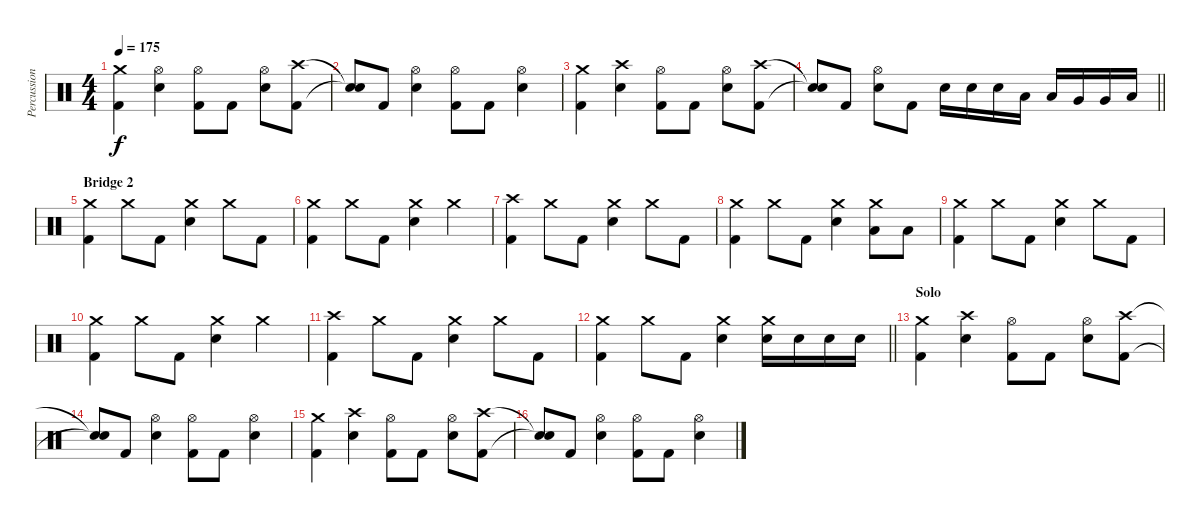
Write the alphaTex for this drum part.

\track ("Percussions" "Percussion") {instrument percussion}
\staff {score}
\articulation defaults
\ts (4 4)
\tempo 175
\clef neutral
\ks c
("Crash medium (hit)" "Kick (hit) 2").4{dy f} ("Hi-Hat (open)" "Electric Snare (hit)").4 ("Hi-Hat (open)" "Kick (hit) 2").8 "Kick (hit) 2".8 ("Hi-Hat (open)" "Electric Snare (hit)").8 ("Crash high (hit)" "Kick (hit) 2").8 |
("Snare (hit)"{t} "Snare (hit)"{t}).8 "Kick (hit) 2".8 ("Hi-Hat (open)" "Electric Snare (hit)").4 ("Hi-Hat (open)" "Kick (hit) 2").8 "Kick (hit) 2".8 ("Hi-Hat (open)" "Electric Snare (hit)").4 |
("Crash medium (hit)" "Kick (hit) 2").4 ("Crash high (hit)" "Electric Snare (hit)").4 ("Hi-Hat (open)" "Kick (hit) 2").8 "Kick (hit) 2".8 ("Hi-Hat (open)" "Electric Snare (hit)").8 ("Crash high (hit)" "Kick (hit) 2").8 |
\barLineRight lightlight
("Snare (hit)"{t} "Snare (hit)"{t}).8 "Kick (hit) 2".8 ("Hi-Hat (open)" "Electric Snare (hit)").8 "Kick (hit) 2".8 "Electric Snare (hit)".16 "Electric Snare (hit)".16 "Electric Snare (hit)".16 "Low Tom (hit)".16 "Low Tom (hit)".16 "Very Low Tom (hit)".16 "Very Low Tom (hit)".16 "Low Floor Tom (hit)".16 |
\section ("" "Bridge 2")
("Crash medium (hit)" "Kick (hit) 2").4 "Crash medium (hit)".8 "Kick (hit) 2".8 ("Crash medium (hit)" "Electric Snare (hit)").4 "Crash medium (hit)".8 "Kick (hit) 2".8 |
("Crash medium (hit)" "Kick (hit) 2").4 "Crash medium (hit)".8 "Kick (hit) 2".8 ("Crash medium (hit)" "Electric Snare (hit)").4 "Crash medium (hit)".4 |
("Crash high (hit)" "Kick (hit) 2").4 "Crash medium (hit)".8 "Kick (hit) 2".8 ("Crash medium (hit)" "Electric Snare (hit)").4 "Crash medium (hit)".8 "Kick (hit) 2".8 |
("Crash medium (hit)" "Kick (hit) 2").4 "Crash medium (hit)".8 "Kick (hit) 2".8 ("Crash medium (hit)" "Electric Snare (hit)").4 ("Crash medium (hit)" "Low Tom (hit)").8 "Low Tom (hit)".8 |
("Crash medium (hit)" "Kick (hit) 2").4 "Crash medium (hit)".8 "Kick (hit) 2".8 ("Crash medium (hit)" "Electric Snare (hit)").4 "Crash medium (hit)".8 "Kick (hit) 2".8 |
("Crash medium (hit)" "Kick (hit) 2").4 "Crash medium (hit)".8 "Kick (hit) 2".8 ("Crash medium (hit)" "Electric Snare (hit)").4 "Crash medium (hit)".4 |
("Crash high (hit)" "Kick (hit) 2").4 "Crash medium (hit)".8 "Kick (hit) 2".8 ("Crash medium (hit)" "Electric Snare (hit)").4 "Crash medium (hit)".8 "Kick (hit) 2".8 |
\barLineRight lightlight
("Crash medium (hit)" "Kick (hit) 2").4 "Crash medium (hit)".8 "Kick (hit) 2".8 ("Crash medium (hit)" "Electric Snare (hit)").4 ("Crash medium (hit)" "Electric Snare (hit)").16 "Electric Snare (hit)".16 "Electric Snare (hit)".16 "Electric Snare (hit)".16 |
\section ("" "Solo")
("Crash medium (hit)" "Kick (hit) 2").4 ("Crash high (hit)" "Electric Snare (hit)").4 ("Hi-Hat (open)" "Kick (hit) 2").8 "Kick (hit) 2".8 ("Hi-Hat (open)" "Electric Snare (hit)").8 ("Crash high (hit)" "Kick (hit) 2").8 |
("Snare (hit)"{t} "Snare (hit)"{t}).8 "Kick (hit) 2".8 ("Hi-Hat (open)" "Electric Snare (hit)").4 ("Hi-Hat (open)" "Kick (hit) 2").8 "Kick (hit) 2".8 ("Hi-Hat (open)" "Electric Snare (hit)").4 |
("Crash medium (hit)" "Kick (hit) 2").4 ("Crash high (hit)" "Electric Snare (hit)").4 ("Hi-Hat (open)" "Kick (hit) 2").8 "Kick (hit) 2".8 ("Hi-Hat (open)" "Electric Snare (hit)").8 ("Crash high (hit)" "Kick (hit) 2").8 |
("Snare (hit)"{t} "Snare (hit)"{t}).8 "Kick (hit) 2".8 ("Hi-Hat (open)" "Electric Snare (hit)").4 ("Hi-Hat (open)" "Kick (hit) 2").8 "Kick (hit) 2".8 ("Hi-Hat (open)" "Electric Snare (hit)").4
